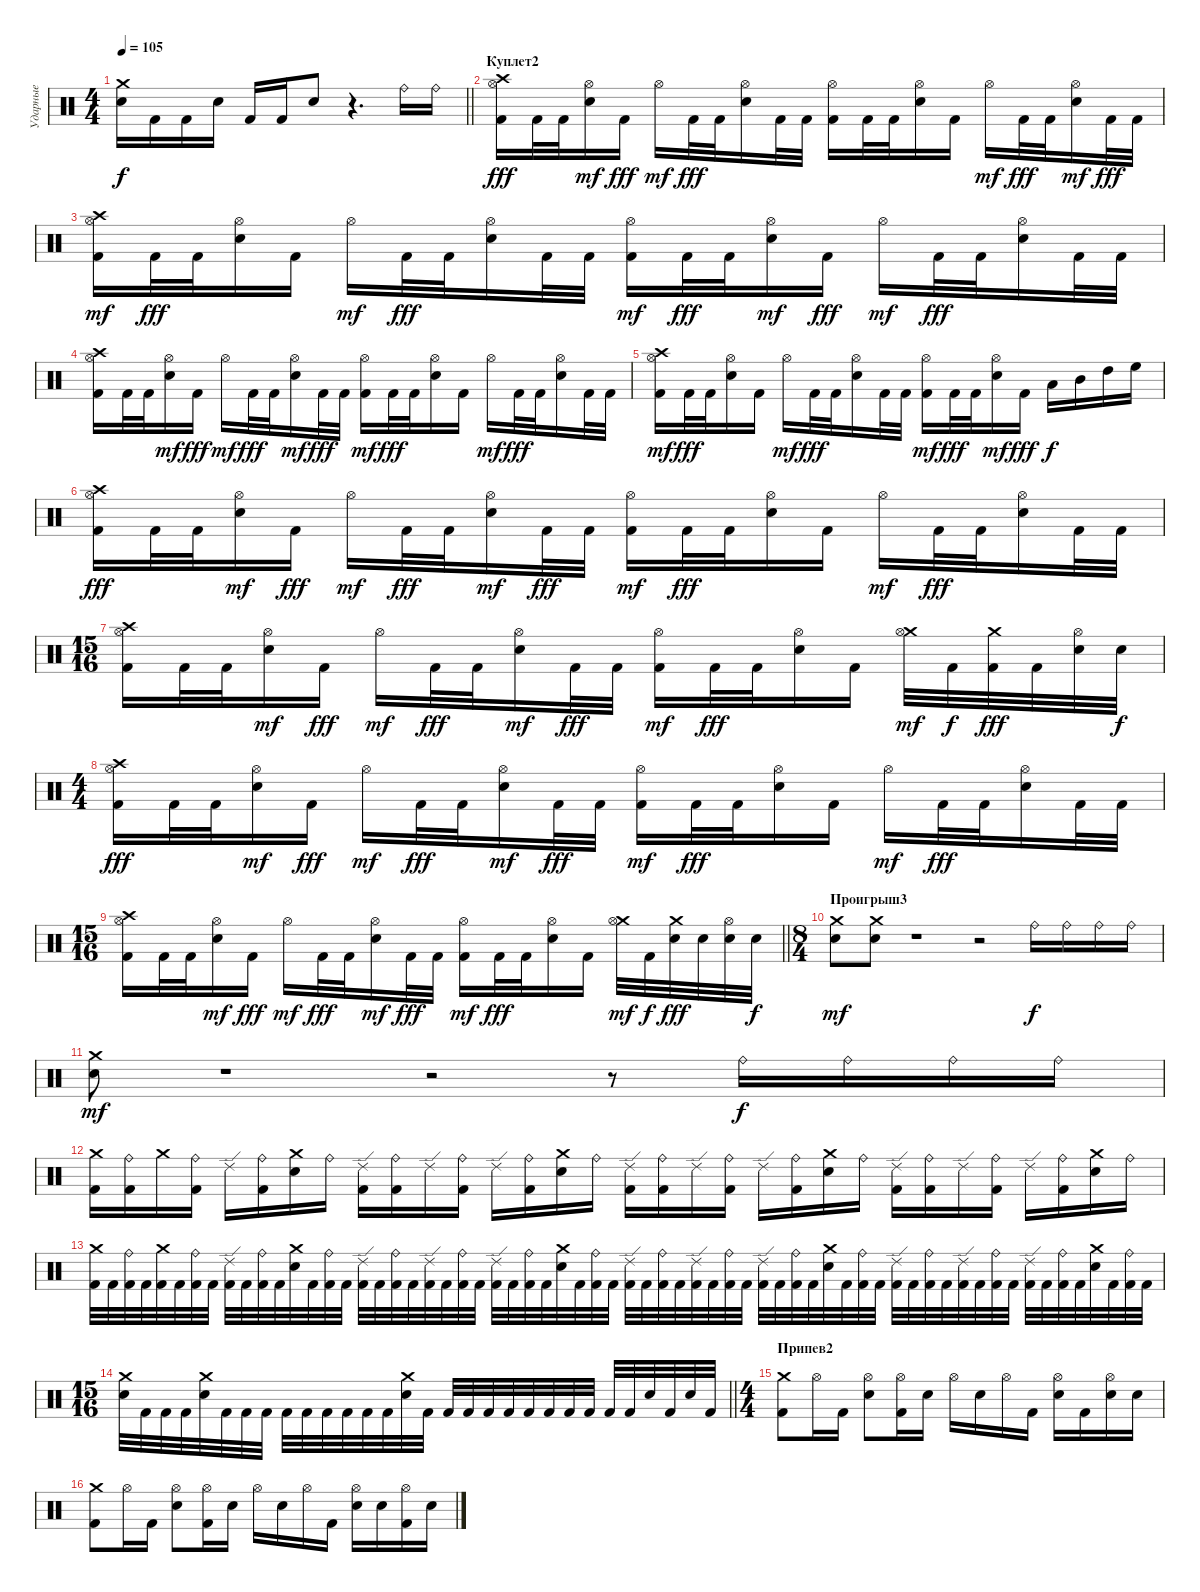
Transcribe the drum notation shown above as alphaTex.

\track ("Ударные" "Ударные") {instrument percussion}
\staff {score}
\articulation defaults
\ts (4 4)
\tempo 105
\clef neutral
\barLineRight lightlight
\ks c
("Crash medium (hit)" "Electric Snare (hit)").16{dy f} "Kick (hit) 2".16 "Kick (hit) 2".16 "Electric Snare (hit)".16 "Kick (hit) 2".16 "Kick (hit) 2".16 "Electric Snare (hit)".8 r.4{d} "Ride (bell)".16 "Ride (bell)".16 |
\section ("" "Куплет2")
("Hi-Hat (open)" "Crash high (hit)" "Kick (hit) 2").16{dy fff} "Kick (hit) 2".32 "Kick (hit) 2".32 ("Electric Snare (hit)" "Hi-Hat (open)").16{dy mf} "Kick (hit) 2".16{dy fff} "Hi-Hat (open)".16{dy mf} "Kick (hit) 2".32{dy fff} "Kick (hit) 2".32 ("Hi-Hat (open)" "Electric Snare (hit)").16 "Kick (hit) 2".32 "Kick (hit) 2".32 ("Hi-Hat (open)" "Kick (hit) 2").16 "Kick (hit) 2".32 "Kick (hit) 2".32 ("Hi-Hat (open)" "Electric Snare (hit)").16 "Kick (hit) 2".16 "Hi-Hat (open)".16{dy mf} "Kick (hit) 2".32{dy fff} "Kick (hit) 2".32 ("Electric Snare (hit)" "Hi-Hat (open)").16{dy mf} "Kick (hit) 2".32{dy fff} "Kick (hit) 2".32 |
("Kick (hit) 2" "Crash high (hit)" "Hi-Hat (open)").16{dy mf} "Kick (hit) 2".32{dy fff} "Kick (hit) 2".32 ("Hi-Hat (open)" "Electric Snare (hit)").16 "Kick (hit) 2".16 "Hi-Hat (open)".16{dy mf} "Kick (hit) 2".32{dy fff} "Kick (hit) 2".32 ("Hi-Hat (open)" "Electric Snare (hit)").16 "Kick (hit) 2".32 "Kick (hit) 2".32 ("Kick (hit) 2" "Hi-Hat (open)").16{dy mf} "Kick (hit) 2".32{dy fff} "Kick (hit) 2".32 ("Electric Snare (hit)" "Hi-Hat (open)").16{dy mf} "Kick (hit) 2".16{dy fff} "Hi-Hat (open)".16{dy mf} "Kick (hit) 2".32{dy fff} "Kick (hit) 2".32 ("Hi-Hat (open)" "Electric Snare (hit)").16 "Kick (hit) 2".32 "Kick (hit) 2".32 |
("Hi-Hat (open)" "Crash high (hit)" "Kick (hit) 2").16 "Kick (hit) 2".32 "Kick (hit) 2".32 ("Electric Snare (hit)" "Hi-Hat (open)").16{dy mf} "Kick (hit) 2".16{dy fff} "Hi-Hat (open)".16{dy mf} "Kick (hit) 2".32{dy fff} "Kick (hit) 2".32 ("Electric Snare (hit)" "Hi-Hat (open)").16{dy mf} "Kick (hit) 2".32{dy fff} "Kick (hit) 2".32 ("Kick (hit) 2" "Hi-Hat (open)").16{dy mf} "Kick (hit) 2".32{dy fff} "Kick (hit) 2".32 ("Hi-Hat (open)" "Electric Snare (hit)").16 "Kick (hit) 2".16 "Hi-Hat (open)".16{dy mf} "Kick (hit) 2".32{dy fff} "Kick (hit) 2".32 ("Hi-Hat (open)" "Electric Snare (hit)").16 "Kick (hit) 2".32 "Kick (hit) 2".32 |
("Kick (hit) 2" "Crash high (hit)" "Hi-Hat (open)").16{dy mf} "Kick (hit) 2".32{dy fff} "Kick (hit) 2".32 ("Hi-Hat (open)" "Electric Snare (hit)").16 "Kick (hit) 2".16 "Hi-Hat (open)".16{dy mf} "Kick (hit) 2".32{dy fff} "Kick (hit) 2".32 ("Hi-Hat (open)" "Electric Snare (hit)").16 "Kick (hit) 2".32 "Kick (hit) 2".32 ("Kick (hit) 2" "Hi-Hat (open)").16{dy mf} "Kick (hit) 2".32{dy fff} "Kick (hit) 2".32 ("Electric Snare (hit)" "Hi-Hat (open)").16{dy mf} "Kick (hit) 2".16{dy fff} "Low Tom (hit)".16{dy f} "Mid Tom (hit)".16 "High Tom (hit)".16 "High Floor Tom (hit)".16 |
("Hi-Hat (open)" "Crash high (hit)" "Kick (hit) 2").16{dy fff} "Kick (hit) 2".32 "Kick (hit) 2".32 ("Electric Snare (hit)" "Hi-Hat (open)").16{dy mf} "Kick (hit) 2".16{dy fff} "Hi-Hat (open)".16{dy mf} "Kick (hit) 2".32{dy fff} "Kick (hit) 2".32 ("Electric Snare (hit)" "Hi-Hat (open)").16{dy mf} "Kick (hit) 2".32{dy fff} "Kick (hit) 2".32 ("Kick (hit) 2" "Hi-Hat (open)").16{dy mf} "Kick (hit) 2".32{dy fff} "Kick (hit) 2".32 ("Hi-Hat (open)" "Electric Snare (hit)").16 "Kick (hit) 2".16 "Hi-Hat (open)".16{dy mf} "Kick (hit) 2".32{dy fff} "Kick (hit) 2".32 ("Hi-Hat (open)" "Electric Snare (hit)").16 "Kick (hit) 2".32 "Kick (hit) 2".32 |
\ts (15 16)
("Hi-Hat (open)" "Crash high (hit)" "Kick (hit) 2").16 "Kick (hit) 2".32 "Kick (hit) 2".32 ("Electric Snare (hit)" "Hi-Hat (open)").16{dy mf} "Kick (hit) 2".16{dy fff} "Hi-Hat (open)".16{dy mf} "Kick (hit) 2".32{dy fff} "Kick (hit) 2".32 ("Electric Snare (hit)" "Hi-Hat (open)").16{dy mf} "Kick (hit) 2".32{dy fff} "Kick (hit) 2".32 ("Kick (hit) 2" "Hi-Hat (open)").16{dy mf} "Kick (hit) 2".32{dy fff} "Kick (hit) 2".32 ("Hi-Hat (open)" "Electric Snare (hit)").16 "Kick (hit) 2".16 ("Crash medium (hit)" "Hi-Hat (open)").32{dy mf} "Kick (hit) 2".32{dy f} ("Crash medium (hit)" "Kick (hit) 2").32{dy fff} "Kick (hit) 2".32 ("Hi-Hat (open)" "Electric Snare (hit)").32 "Electric Snare (hit)".32{dy f} |
\ts (4 4)
("Hi-Hat (open)" "Crash high (hit)" "Kick (hit) 2").16{dy fff} "Kick (hit) 2".32 "Kick (hit) 2".32 ("Electric Snare (hit)" "Hi-Hat (open)").16{dy mf} "Kick (hit) 2".16{dy fff} "Hi-Hat (open)".16{dy mf} "Kick (hit) 2".32{dy fff} "Kick (hit) 2".32 ("Electric Snare (hit)" "Hi-Hat (open)").16{dy mf} "Kick (hit) 2".32{dy fff} "Kick (hit) 2".32 ("Kick (hit) 2" "Hi-Hat (open)").16{dy mf} "Kick (hit) 2".32{dy fff} "Kick (hit) 2".32 ("Hi-Hat (open)" "Electric Snare (hit)").16 "Kick (hit) 2".16 "Hi-Hat (open)".16{dy mf} "Kick (hit) 2".32{dy fff} "Kick (hit) 2".32 ("Hi-Hat (open)" "Electric Snare (hit)").16 "Kick (hit) 2".32 "Kick (hit) 2".32 |
\ts (15 16)
\barLineRight lightlight
("Hi-Hat (open)" "Crash high (hit)" "Kick (hit) 2").16 "Kick (hit) 2".32 "Kick (hit) 2".32 ("Electric Snare (hit)" "Hi-Hat (open)").16{dy mf} "Kick (hit) 2".16{dy fff} "Hi-Hat (open)".16{dy mf} "Kick (hit) 2".32{dy fff} "Kick (hit) 2".32 ("Electric Snare (hit)" "Hi-Hat (open)").16{dy mf} "Kick (hit) 2".32{dy fff} "Kick (hit) 2".32 ("Kick (hit) 2" "Hi-Hat (open)").16{dy mf} "Kick (hit) 2".32{dy fff} "Kick (hit) 2".32 ("Hi-Hat (open)" "Electric Snare (hit)").16 "Kick (hit) 2".16 ("Crash medium (hit)" "Hi-Hat (open)").32{dy mf} "Kick (hit) 2".32{dy f} ("Crash medium (hit)" "Electric Snare (hit)").32{dy fff} "Electric Snare (hit)".32 ("Hi-Hat (open)" "Electric Snare (hit)").32 "Electric Snare (hit)".32{dy f} |
\ts (8 4)
\section ("" "Проигрыш3")
("Crash medium (hit)" "Electric Snare (hit)").8{dy mf} ("Crash medium (hit)" "Electric Snare (hit)").8 r.1 r.2 "Ride (bell)".16{dy f} "Ride (bell)".16 "Ride (bell)".16 "Ride (bell)".16 |
("Crash medium (hit)" "Electric Snare (hit)").8{dy mf} r.1 r.2 r.8 "Ride (bell)".16{dy f} "Ride (bell)".16 "Ride (bell)".16 "Ride (bell)".16 |
("Crash medium (hit)" "Kick (hit) 2").16 ("Ride (bell)" "Kick (hit) 2").16 "Crash medium (hit)".16 ("Ride (bell)" "Kick (hit) 2").16 "Ride (edge) 2".16 ("Ride (bell)" "Kick (hit) 2").16 ("Crash medium (hit)" "Electric Snare (hit)").16 "Ride (bell)".16 ("Ride (edge) 2" "Kick (hit) 2").16 ("Ride (bell)" "Kick (hit) 2").16 "Ride (edge) 2".16 ("Ride (bell)" "Kick (hit) 2").16 "Ride (edge) 2".16 ("Ride (bell)" "Kick (hit) 2").16 ("Crash medium (hit)" "Electric Snare (hit)").16 "Ride (bell)".16 ("Ride (edge) 2" "Kick (hit) 2").16 ("Ride (bell)" "Kick (hit) 2").16 "Ride (edge) 2".16 ("Ride (bell)" "Kick (hit) 2").16 "Ride (edge) 2".16 ("Ride (bell)" "Kick (hit) 2").16 ("Crash medium (hit)" "Electric Snare (hit)").16 "Ride (bell)".16 ("Ride (edge) 2" "Kick (hit) 2").16 ("Ride (bell)" "Kick (hit) 2").16 "Ride (edge) 2".16 ("Ride (bell)" "Kick (hit) 2").16 "Ride (edge) 2".16 ("Ride (bell)" "Kick (hit) 2").16 ("Crash medium (hit)" "Electric Snare (hit)").16 "Ride (bell)".16 |
("Crash medium (hit)" "Kick (hit) 2").32 "Kick (hit) 2".32 ("Ride (bell)" "Kick (hit) 2").32 "Kick (hit) 2".32 ("Kick (hit) 2" "Crash medium (hit)").32 "Kick (hit) 2".32 ("Ride (bell)" "Kick (hit) 2").32 "Kick (hit) 2".32 ("Kick (hit) 2" "Ride (edge) 2").32 "Kick (hit) 2".32 ("Ride (bell)" "Kick (hit) 2").32 "Kick (hit) 2".32 ("Crash medium (hit)" "Electric Snare (hit)").32 "Kick (hit) 2".32 ("Kick (hit) 2" "Ride (bell)").32 "Kick (hit) 2".32 ("Ride (edge) 2" "Kick (hit) 2").32 "Kick (hit) 2".32 ("Ride (bell)" "Kick (hit) 2").32 "Kick (hit) 2".32 ("Kick (hit) 2" "Ride (edge) 2").32 "Kick (hit) 2".32 ("Ride (bell)" "Kick (hit) 2").32 "Kick (hit) 2".32 ("Kick (hit) 2" "Ride (edge) 2").32 "Kick (hit) 2".32 ("Ride (bell)" "Kick (hit) 2").32 "Kick (hit) 2".32 ("Crash medium (hit)" "Electric Snare (hit)").32 "Kick (hit) 2".32 ("Kick (hit) 2" "Ride (bell)").32 "Kick (hit) 2".32 ("Ride (edge) 2" "Kick (hit) 2").32 "Kick (hit) 2".32 ("Ride (bell)" "Kick (hit) 2").32 "Kick (hit) 2".32 ("Kick (hit) 2" "Ride (edge) 2").32 "Kick (hit) 2".32 ("Ride (bell)" "Kick (hit) 2").32 "Kick (hit) 2".32 ("Kick (hit) 2" "Ride (edge) 2").32 "Kick (hit) 2".32 ("Ride (bell)" "Kick (hit) 2").32 "Kick (hit) 2".32 ("Crash medium (hit)" "Electric Snare (hit)").32 "Kick (hit) 2".32 ("Kick (hit) 2" "Ride (bell)").32 "Kick (hit) 2".32 ("Ride (edge) 2" "Kick (hit) 2").32 "Kick (hit) 2".32 ("Ride (bell)" "Kick (hit) 2").32 "Kick (hit) 2".32 ("Kick (hit) 2" "Ride (edge) 2").32 "Kick (hit) 2".32 ("Ride (bell)" "Kick (hit) 2").32 "Kick (hit) 2".32 ("Kick (hit) 2" "Ride (edge) 2").32 "Kick (hit) 2".32 ("Ride (bell)" "Kick (hit) 2").32 "Kick (hit) 2".32 ("Crash medium (hit)" "Electric Snare (hit)").32 "Kick (hit) 2".32 ("Kick (hit) 2" "Ride (bell)").32 "Kick (hit) 2".32 |
\ts (15 16)
\barLineRight lightlight
("Crash medium (hit)" "Electric Snare (hit)").32 "Kick (hit) 2".32 "Kick (hit) 2".32 "Kick (hit) 2".32 ("Crash medium (hit)" "Electric Snare (hit)").32 "Kick (hit) 2".32 "Kick (hit) 2".32 "Kick (hit) 2".32 "Kick (hit) 2".32 "Kick (hit) 2".32 "Kick (hit) 2".32 "Kick (hit) 2".32 "Kick (hit) 2".32 "Kick (hit) 2".32 ("Electric Snare (hit)" "Crash medium (hit)").32 "Kick (hit) 2".32 "Kick (hit) 2".32 "Kick (hit) 2".32 "Kick (hit) 2".32 "Kick (hit) 2".32 "Kick (hit) 2".32 "Kick (hit) 2".32 "Kick (hit) 2".32 "Kick (hit) 2".32 "Kick (hit) 2".32 "Kick (hit) 2".32 "Electric Snare (hit)".32 "Kick (hit) 2".32 "Electric Snare (hit)".32 "Kick (hit) 2".32 |
\ts (4 4)
\section ("" "Припев2")
("Crash medium (hit)" "Kick (hit) 2").8 "Hi-Hat (open)".16 "Kick (hit) 2".16 ("Hi-Hat (open)" "Electric Snare (hit)").8 ("Hi-Hat (open)" "Kick (hit) 2").16 "Electric Snare (hit)".16 "Hi-Hat (open)".16 "Electric Snare (hit)".16 "Hi-Hat (open)".16 "Kick (hit) 2".16 ("Hi-Hat (open)" "Electric Snare (hit)").16 "Kick (hit) 2".16 ("Hi-Hat (open)" "Electric Snare (hit)").16 "Electric Snare (hit)".16 |
("Crash medium (hit)" "Kick (hit) 2").8 "Hi-Hat (open)".16 "Kick (hit) 2".16 ("Hi-Hat (open)" "Electric Snare (hit)").8 ("Hi-Hat (open)" "Kick (hit) 2").16 "Electric Snare (hit)".16 "Hi-Hat (open)".16 "Electric Snare (hit)".16 "Hi-Hat (open)".16 "Kick (hit) 2".16 ("Hi-Hat (open)" "Electric Snare (hit)").16 "Electric Snare (hit)".16 ("Hi-Hat (open)" "Kick (hit) 2").16 "Electric Snare (hit)".16
